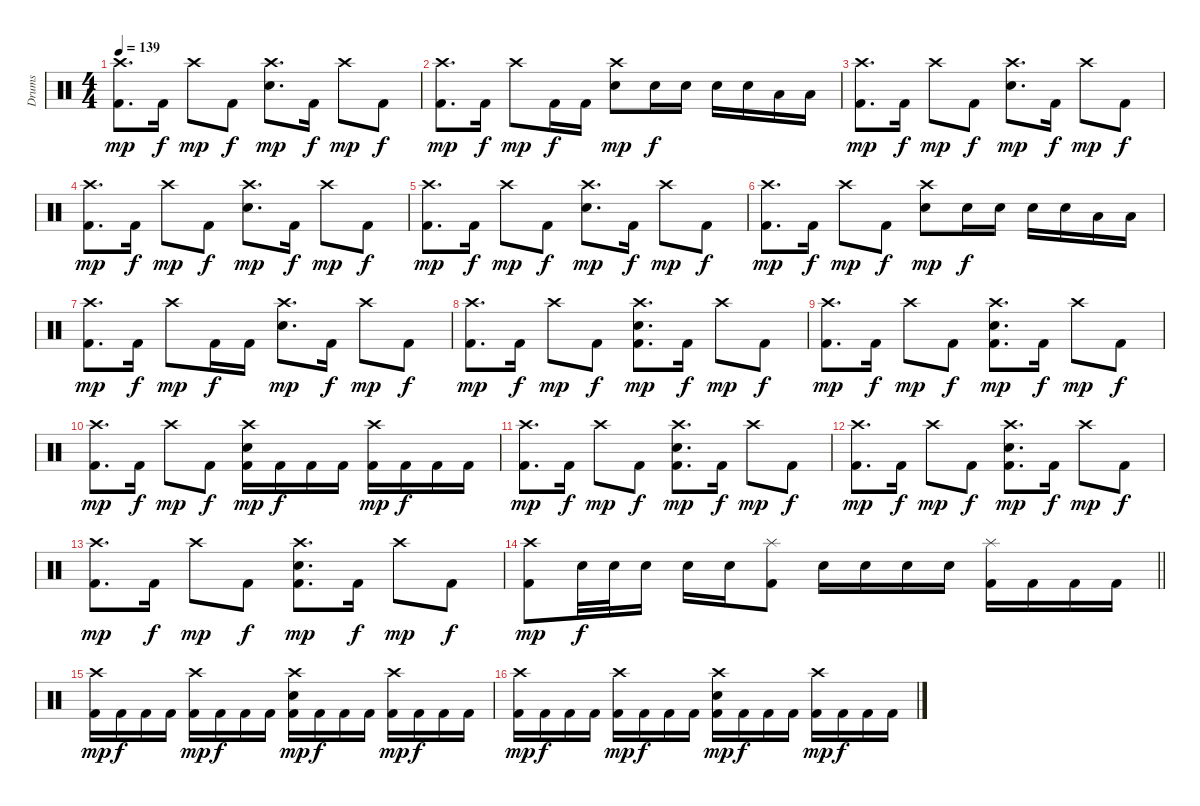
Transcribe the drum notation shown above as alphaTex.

\track ("Drums" "Drums") {instrument percussion}
\staff {score}
\articulation defaults
\ts (4 4)
\tempo 139
\clef neutral
\ks c
("Crash high (hit)" "Kick (hit) 2").8{d dy mp} "Kick (hit) 2".16{dy f} "Crash high (hit)".8{dy mp} "Kick (hit) 2".8{dy f} ("Crash high (hit)" "Snare (hit) 2").8{d dy mp} "Kick (hit) 2".16{dy f} "Crash high (hit)".8{dy mp} "Kick (hit) 2".8{dy f} |
("Crash high (hit)" "Kick (hit) 2").8{d dy mp} "Kick (hit) 2".16{dy f} "Crash high (hit)".8{dy mp} "Kick (hit) 2".16{dy f} "Kick (hit) 2".16 ("Crash high (hit)" "Snare (hit) 2").8{dy mp} "Snare (hit) 2".16{dy f} "Snare (hit) 2".16 "Snare (hit) 2".16 "Snare (hit) 2".16 "Low Tom (hit)".16 "Low Tom (hit)".16 |
("Crash high (hit)" "Kick (hit) 2").8{d dy mp} "Kick (hit) 2".16{dy f} "Crash high (hit)".8{dy mp} "Kick (hit) 2".8{dy f} ("Crash high (hit)" "Snare (hit) 2").8{d dy mp} "Kick (hit) 2".16{dy f} "Crash high (hit)".8{dy mp} "Kick (hit) 2".8{dy f} |
("Crash high (hit)" "Kick (hit) 2").8{d dy mp} "Kick (hit) 2".16{dy f} "Crash high (hit)".8{dy mp} "Kick (hit) 2".8{dy f} ("Crash high (hit)" "Snare (hit) 2").8{d dy mp} "Kick (hit) 2".16{dy f} "Crash high (hit)".8{dy mp} "Kick (hit) 2".8{dy f} |
("Crash high (hit)" "Kick (hit) 2").8{d dy mp} "Kick (hit) 2".16{dy f} "Crash high (hit)".8{dy mp} "Kick (hit) 2".8{dy f} ("Crash high (hit)" "Snare (hit) 2").8{d dy mp} "Kick (hit) 2".16{dy f} "Crash high (hit)".8{dy mp} "Kick (hit) 2".8{dy f} |
("Crash high (hit)" "Kick (hit) 2").8{d dy mp} "Kick (hit) 2".16{dy f} "Crash high (hit)".8{dy mp} "Kick (hit) 2".8{dy f} ("Crash high (hit)" "Snare (hit) 2").8{dy mp} "Snare (hit) 2".16{dy f} "Snare (hit) 2".16 "Snare (hit) 2".16 "Snare (hit) 2".16 "Low Tom (hit)".16 "Low Tom (hit)".16 |
("Crash high (hit)" "Kick (hit) 2").8{d dy mp} "Kick (hit) 2".16{dy f} "Crash high (hit)".8{dy mp} "Kick (hit) 2".16{dy f} "Kick (hit) 2".16 ("Crash high (hit)" "Snare (hit) 2").8{d dy mp} "Kick (hit) 2".16{dy f} "Crash high (hit)".8{dy mp} "Kick (hit) 2".8{dy f} |
("Crash high (hit)" "Kick (hit) 2").8{d dy mp} "Kick (hit) 2".16{dy f} "Crash high (hit)".8{dy mp} "Kick (hit) 2".8{dy f} ("Crash high (hit)" "Snare (hit) 2" "Kick (hit) 2").8{d dy mp} "Kick (hit) 2".16{dy f} "Crash high (hit)".8{dy mp} "Kick (hit) 2".8{dy f} |
("Crash high (hit)" "Kick (hit) 2").8{d dy mp} "Kick (hit) 2".16{dy f} "Crash high (hit)".8{dy mp} "Kick (hit) 2".8{dy f} ("Crash high (hit)" "Snare (hit) 2" "Kick (hit) 2").8{d dy mp} "Kick (hit) 2".16{dy f} "Crash high (hit)".8{dy mp} "Kick (hit) 2".8{dy f} |
("Crash high (hit)" "Kick (hit) 2").8{d dy mp} "Kick (hit) 2".16{dy f} "Crash high (hit)".8{dy mp} "Kick (hit) 2".8{dy f} ("Crash high (hit)" "Snare (hit) 2" "Kick (hit) 2").16{dy mp} "Kick (hit) 2".16{dy f} "Kick (hit) 2".16 "Kick (hit) 2".16 ("Crash high (hit)" "Kick (hit) 2").16{dy mp} "Kick (hit) 2".16{dy f} "Kick (hit) 2".16 "Kick (hit) 2".16 |
("Crash high (hit)" "Kick (hit) 2").8{d dy mp} "Kick (hit) 2".16{dy f} "Crash high (hit)".8{dy mp} "Kick (hit) 2".8{dy f} ("Crash high (hit)" "Snare (hit) 2" "Kick (hit) 2").8{d dy mp} "Kick (hit) 2".16{dy f} "Crash high (hit)".8{dy mp} "Kick (hit) 2".8{dy f} |
("Crash high (hit)" "Kick (hit) 2").8{d dy mp} "Kick (hit) 2".16{dy f} "Crash high (hit)".8{dy mp} "Kick (hit) 2".8{dy f} ("Crash high (hit)" "Snare (hit) 2" "Kick (hit) 2").8{d dy mp} "Kick (hit) 2".16{dy f} "Crash high (hit)".8{dy mp} "Kick (hit) 2".8{dy f} |
("Crash high (hit)" "Kick (hit) 2").8{d dy mp} "Kick (hit) 2".16{dy f} "Crash high (hit)".8{dy mp} "Kick (hit) 2".8{dy f} ("Crash high (hit)" "Snare (hit) 2" "Kick (hit) 2").8{d dy mp} "Kick (hit) 2".16{dy f} "Crash high (hit)".8{dy mp} "Kick (hit) 2".8{dy f} |
\barLineRight lightlight
("Crash high (hit)" "Kick (hit) 2").8{dy mp} "Snare (hit) 2".32{dy f} "Snare (hit) 2".32 "Snare (hit) 2".16 "Snare (hit) 2".16 "Snare (hit) 2".16 ("Splash (hit)" "Kick (hit) 2").8 "Snare (hit) 2".16 "Snare (hit) 2".16 "Snare (hit) 2".16 "Snare (hit) 2".16 ("Splash (hit)" "Kick (hit) 2").16 "Kick (hit) 2".16 "Kick (hit) 2".16 "Kick (hit) 2".16 |
("Crash high (hit)" "Kick (hit) 2").16{dy mp} "Kick (hit) 2".16{dy f} "Kick (hit) 2".16 "Kick (hit) 2".16 ("Crash high (hit)" "Kick (hit) 2").16{dy mp} "Kick (hit) 2".16{dy f} "Kick (hit) 2".16 "Kick (hit) 2".16 ("Crash high (hit)" "Snare (hit) 2" "Kick (hit) 2").16{dy mp} "Kick (hit) 2".16{dy f} "Kick (hit) 2".16 "Kick (hit) 2".16 ("Crash high (hit)" "Kick (hit) 2").16{dy mp} "Kick (hit) 2".16{dy f} "Kick (hit) 2".16 "Kick (hit) 2".16 |
("Crash high (hit)" "Kick (hit) 2").16{dy mp} "Kick (hit) 2".16{dy f} "Kick (hit) 2".16 "Kick (hit) 2".16 ("Crash high (hit)" "Kick (hit) 2").16{dy mp} "Kick (hit) 2".16{dy f} "Kick (hit) 2".16 "Kick (hit) 2".16 ("Crash high (hit)" "Snare (hit) 2" "Kick (hit) 2").16{dy mp} "Kick (hit) 2".16{dy f} "Kick (hit) 2".16 "Kick (hit) 2".16 ("Crash high (hit)" "Kick (hit) 2").16{dy mp} "Kick (hit) 2".16{dy f} "Kick (hit) 2".16 "Kick (hit) 2".16
